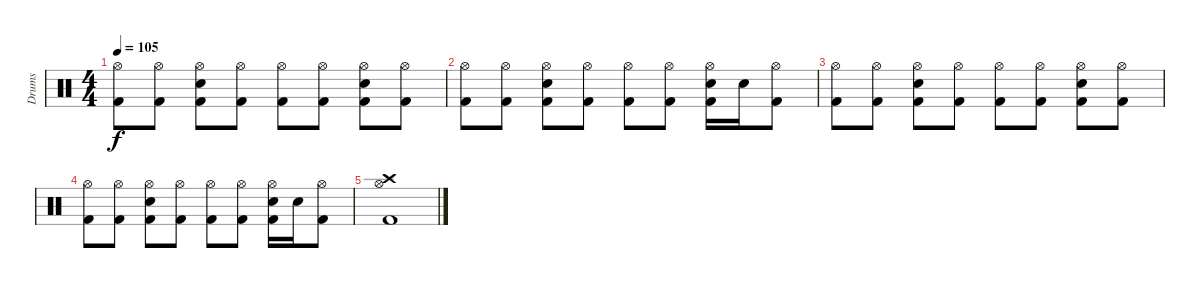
\track ("Drums" "Drums") {instrument percussion}
\staff {score}
\articulation defaults
\ts (4 4)
\tempo 105
\clef neutral
\ks c
("Hi-Hat (open)" "Kick (hit) 2").8{dy f} ("Hi-Hat (open)" "Kick (hit) 2").8 ("Hi-Hat (open)" "Electric Snare (hit)" "Kick (hit) 2").8 ("Hi-Hat (open)" "Kick (hit) 2").8 ("Hi-Hat (open)" "Kick (hit) 2").8 ("Hi-Hat (open)" "Kick (hit) 2").8 ("Hi-Hat (open)" "Electric Snare (hit)" "Kick (hit) 2").8 ("Hi-Hat (open)" "Kick (hit) 2").8 |
("Hi-Hat (open)" "Kick (hit) 2").8 ("Hi-Hat (open)" "Kick (hit) 2").8 ("Hi-Hat (open)" "Electric Snare (hit)" "Kick (hit) 2").8 ("Hi-Hat (open)" "Kick (hit) 2").8 ("Hi-Hat (open)" "Kick (hit) 2").8 ("Hi-Hat (open)" "Kick (hit) 2").8 ("Hi-Hat (open)" "Electric Snare (hit)" "Kick (hit) 2").16 "Electric Snare (hit)".16 ("Hi-Hat (open)" "Kick (hit) 2").8 |
("Hi-Hat (open)" "Kick (hit) 2").8 ("Hi-Hat (open)" "Kick (hit) 2").8 ("Hi-Hat (open)" "Electric Snare (hit)" "Kick (hit) 2").8 ("Hi-Hat (open)" "Kick (hit) 2").8 ("Hi-Hat (open)" "Kick (hit) 2").8 ("Hi-Hat (open)" "Kick (hit) 2").8 ("Hi-Hat (open)" "Electric Snare (hit)" "Kick (hit) 2").8 ("Hi-Hat (open)" "Kick (hit) 2").8 |
("Hi-Hat (open)" "Kick (hit) 2").8 ("Hi-Hat (open)" "Kick (hit) 2").8 ("Hi-Hat (open)" "Electric Snare (hit)" "Kick (hit) 2").8 ("Hi-Hat (open)" "Kick (hit) 2").8 ("Hi-Hat (open)" "Kick (hit) 2").8 ("Hi-Hat (open)" "Kick (hit) 2").8 ("Hi-Hat (open)" "Electric Snare (hit)" "Kick (hit) 2").16 "Electric Snare (hit)".16 ("Hi-Hat (open)" "Kick (hit) 2").8 |
("Crash high (hit)" "Hi-Hat (open)" "Kick (hit) 2").1
